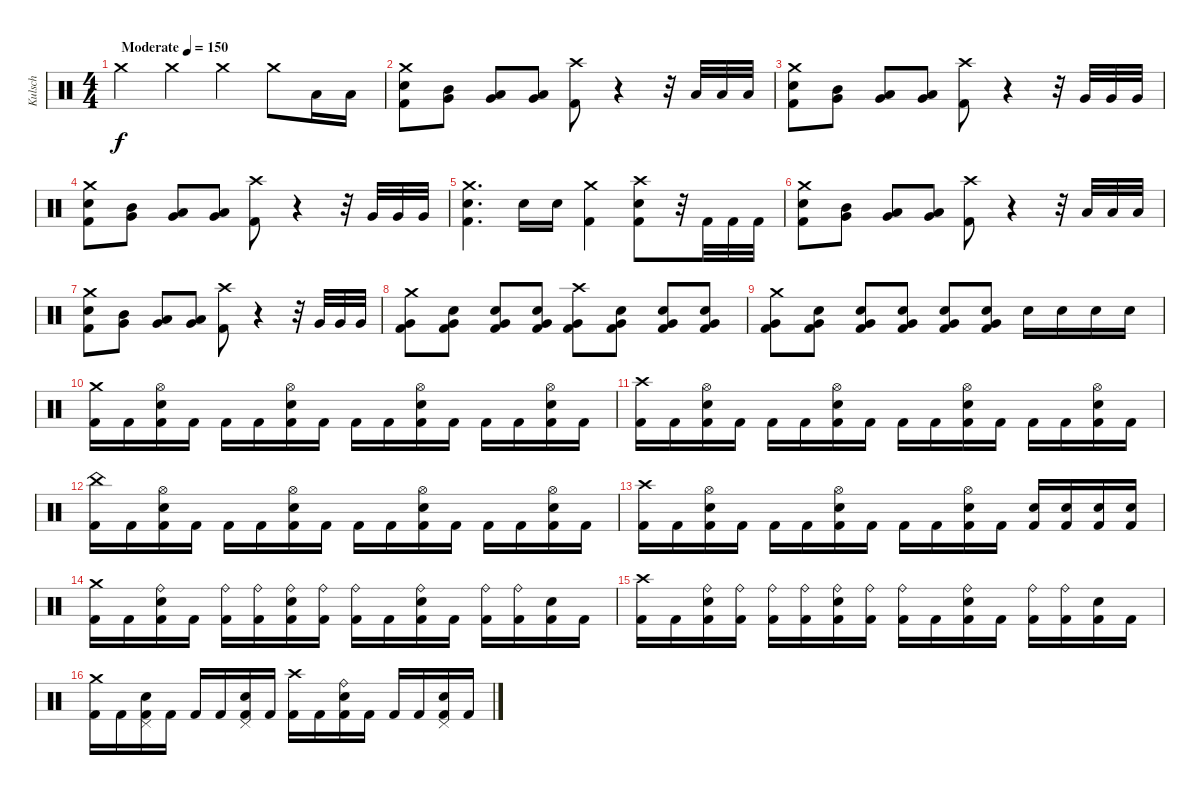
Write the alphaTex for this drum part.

\track ("Kulsch" "Kulsch") {instrument percussion}
\staff {score}
\articulation defaults
\ts (4 4)
\tempo (150 "Moderate")
\clef neutral
\ks c "Crash medium (hit)".4{dy f} "Crash medium (hit)".4 "Crash medium (hit)".4 "Crash medium (hit)".8 "Low Tom (hit)".16 "Low Tom (hit)".16
|
("Crash medium (hit)" "Snare (hit) 2" "Kick (hit) 2").8 ("Mid Tom (hit)" "Very Low Tom (hit)").8 ("Low Tom (hit)" "Very Low Tom (hit)").8 ("Low Tom (hit)" "Very Low Tom (hit)").8 ("Crash high (hit)" "Kick (hit) 2").8 r.4 r.32 "Low Tom (hit)".32 "Low Tom (hit)".32 "Low Tom (hit)".32 |
("Crash medium (hit)" "Snare (hit) 2" "Kick (hit) 2").8 ("Mid Tom (hit)" "Very Low Tom (hit)").8 ("Very Low Tom (hit)" "Low Floor Tom (hit)").8 ("Very Low Tom (hit)" "Low Floor Tom (hit)").8 ("Crash high (hit)" "Kick (hit) 2").8 r.4 r.32 "Very Low Tom (hit)".32 "Very Low Tom (hit)".32 "Very Low Tom (hit)".32 |
("Crash medium (hit)" "Snare (hit) 2" "Kick (hit) 2").8 ("Mid Tom (hit)" "Very Low Tom (hit)").8 ("Low Tom (hit)" "Very Low Tom (hit)").8 ("Low Tom (hit)" "Very Low Tom (hit)").8 ("Crash high (hit)" "Kick (hit) 2").8 r.4 r.32 "Very Low Tom (hit)".32 "Very Low Tom (hit)".32 "Very Low Tom (hit)".32 |
("Crash medium (hit)" "Snare (hit) 2" "Kick (hit) 2").4{d} "Snare (hit) 2".16 "Snare (hit) 2".16 ("Crash medium (hit)" "Kick (hit) 2").4 ("Crash high (hit)" "Snare (hit) 2" "Kick (hit) 2").8 r.32 "Kick (hit) 2".32 "Kick (hit) 2".32 "Kick (hit) 2".32 |
("Crash medium (hit)" "Snare (hit) 2" "Kick (hit) 2").8 ("Mid Tom (hit)" "Very Low Tom (hit)").8 ("Low Tom (hit)" "Very Low Tom (hit)").8 ("Low Tom (hit)" "Very Low Tom (hit)").8 ("Crash high (hit)" "Kick (hit) 2").8 r.4 r.32 "Low Tom (hit)".32 "Low Tom (hit)".32 "Low Tom (hit)".32 |
("Crash medium (hit)" "Snare (hit) 2" "Kick (hit) 2").8 ("Mid Tom (hit)" "Very Low Tom (hit)").8 ("Very Low Tom (hit)" "Low Floor Tom (hit)").8 ("Very Low Tom (hit)" "Low Floor Tom (hit)").8 ("Crash high (hit)" "Kick (hit) 2").8 r.4 r.32 "Very Low Tom (hit)".32 "Very Low Tom (hit)".32 "Very Low Tom (hit)".32 |
("Crash medium (hit)" "Very Low Tom (hit)" "Kick (hit) 2").8 ("Snare (hit) 2" "Very Low Tom (hit)" "Kick (hit) 2").8 ("Snare (hit) 2" "Very Low Tom (hit)" "Kick (hit) 2").8 ("Snare (hit) 2" "Very Low Tom (hit)" "Kick (hit) 2").8 ("Crash high (hit)" "Very Low Tom (hit)" "Kick (hit) 2").8 ("Snare (hit) 2" "Very Low Tom (hit)" "Kick (hit) 2").8 ("Snare (hit) 2" "Very Low Tom (hit)" "Kick (hit) 2").8 ("Snare (hit) 2" "Very Low Tom (hit)" "Kick (hit) 2").8 |
("Crash medium (hit)" "Very Low Tom (hit)" "Kick (hit) 2").8 ("Snare (hit) 2" "Very Low Tom (hit)" "Kick (hit) 2").8 ("Snare (hit) 2" "Very Low Tom (hit)" "Kick (hit) 2").8 ("Snare (hit) 2" "Very Low Tom (hit)" "Kick (hit) 2").8 ("Snare (hit) 2" "Very Low Tom (hit)" "Kick (hit) 2").8 ("Snare (hit) 2" "Very Low Tom (hit)" "Kick (hit) 2").8 "Snare (hit) 2".16 "Snare (hit) 2".16 "Snare (hit) 2".16 "Snare (hit) 2".16 |
("Crash medium (hit)" "Kick (hit) 2").16 "Kick (hit) 2".16 ("Hi-Hat (open)" "Snare (hit) 2" "Kick (hit) 2").16 "Kick (hit) 2".16 "Kick (hit) 2".16 "Kick (hit) 2".16 ("Hi-Hat (open)" "Snare (hit) 2" "Kick (hit) 2").16 "Kick (hit) 2".16 "Kick (hit) 2".16 "Kick (hit) 2".16 ("Hi-Hat (open)" "Snare (hit) 2" "Kick (hit) 2").16 "Kick (hit) 2".16 "Kick (hit) 2".16 "Kick (hit) 2".16 ("Hi-Hat (open)" "Snare (hit) 2" "Kick (hit) 2").16 "Kick (hit) 2".16 |
("Crash high (hit)" "Kick (hit) 2").16 "Kick (hit) 2".16 ("Hi-Hat (open)" "Snare (hit) 2" "Kick (hit) 2").16 "Kick (hit) 2".16 "Kick (hit) 2".16 "Kick (hit) 2".16 ("Hi-Hat (open)" "Snare (hit) 2" "Kick (hit) 2").16 "Kick (hit) 2".16 "Kick (hit) 2".16 "Kick (hit) 2".16 ("Hi-Hat (open)" "Snare (hit) 2" "Kick (hit) 2").16 "Kick (hit) 2".16 "Kick (hit) 2".16 "Kick (hit) 2".16 ("Hi-Hat (open)" "Snare (hit) 2" "Kick (hit) 2").16 "Kick (hit) 2".16 |
("China (hit)" "Kick (hit) 2").16 "Kick (hit) 2".16 ("Hi-Hat (open)" "Snare (hit) 2" "Kick (hit) 2").16 "Kick (hit) 2".16 "Kick (hit) 2".16 "Kick (hit) 2".16 ("Hi-Hat (open)" "Snare (hit) 2" "Kick (hit) 2").16 "Kick (hit) 2".16 "Kick (hit) 2".16 "Kick (hit) 2".16 ("Hi-Hat (open)" "Snare (hit) 2" "Kick (hit) 2").16 "Kick (hit) 2".16 "Kick (hit) 2".16 "Kick (hit) 2".16 ("Hi-Hat (open)" "Snare (hit) 2" "Kick (hit) 2").16 "Kick (hit) 2".16 |
("Crash high (hit)" "Kick (hit) 2").16 "Kick (hit) 2".16 ("Hi-Hat (open)" "Snare (hit) 2" "Kick (hit) 2").16 "Kick (hit) 2".16 "Kick (hit) 2".16 "Kick (hit) 2".16 ("Hi-Hat (open)" "Snare (hit) 2" "Kick (hit) 2").16 "Kick (hit) 2".16 "Kick (hit) 2".16 "Kick (hit) 2".16 ("Hi-Hat (open)" "Snare (hit) 2" "Kick (hit) 2").16 "Kick (hit) 2".16 ("Snare (hit) 2" "Kick (hit) 2").16 ("Snare (hit) 2" "Kick (hit) 2").16 ("Snare (hit) 2" "Kick (hit) 2").16 ("Snare (hit) 2" "Kick (hit) 2").16 |
("Crash medium (hit)" "Kick (hit) 2").16 "Kick (hit) 2".16 ("Ride (bell)" "Snare (hit) 2" "Kick (hit) 2").16 "Kick (hit) 2".16 ("Ride (bell)" "Kick (hit) 2").16 ("Ride (bell)" "Kick (hit) 2").16 ("Ride (bell)" "Snare (hit) 2" "Kick (hit) 2").16 ("Ride (bell)" "Kick (hit) 2").16 ("Ride (bell)" "Kick (hit) 2").16 "Kick (hit) 2".16 ("Ride (bell)" "Snare (hit) 2" "Kick (hit) 2").16 "Kick (hit) 2".16 ("Ride (bell)" "Kick (hit) 2").16 ("Ride (bell)" "Kick (hit) 2").16 ("Snare (hit) 2" "Kick (hit) 2").16 "Kick (hit) 2".16 |
("Crash high (hit)" "Kick (hit) 2").16 "Kick (hit) 2".16 ("Ride (bell)" "Snare (hit) 2" "Kick (hit) 2").16 ("Ride (bell)" "Kick (hit) 2").16 ("Ride (bell)" "Kick (hit) 2").16 ("Ride (bell)" "Kick (hit) 2").16 ("Ride (bell)" "Snare (hit) 2" "Kick (hit) 2").16 ("Ride (bell)" "Kick (hit) 2").16 ("Ride (bell)" "Kick (hit) 2").16 "Kick (hit) 2".16 ("Ride (bell)" "Snare (hit) 2" "Kick (hit) 2").16 "Kick (hit) 2".16 ("Ride (bell)" "Kick (hit) 2").16 ("Ride (bell)" "Kick (hit) 2").16 ("Snare (hit) 2" "Kick (hit) 2").16 "Kick (hit) 2".16 |
("Crash medium (hit)" "Kick (hit) 2").16 "Kick (hit) 2".16 ("Pedal Hi-Hat (hit)" "Snare (hit) 2" "Kick (hit) 2").16 "Kick (hit) 2".16 "Kick (hit) 2".16 "Kick (hit) 2".16 ("Pedal Hi-Hat (hit)" "Snare (hit) 2" "Kick (hit) 2").16 "Kick (hit) 2".16 ("Crash high (hit)" "Kick (hit) 2").16 "Kick (hit) 2".16 ("Ride (bell)" "Snare (hit) 2" "Kick (hit) 2").16 "Kick (hit) 2".16 "Kick (hit) 2".16 "Kick (hit) 2".16 ("Pedal Hi-Hat (hit)" "Snare (hit) 2" "Kick (hit) 2").16 "Kick (hit) 2".16
